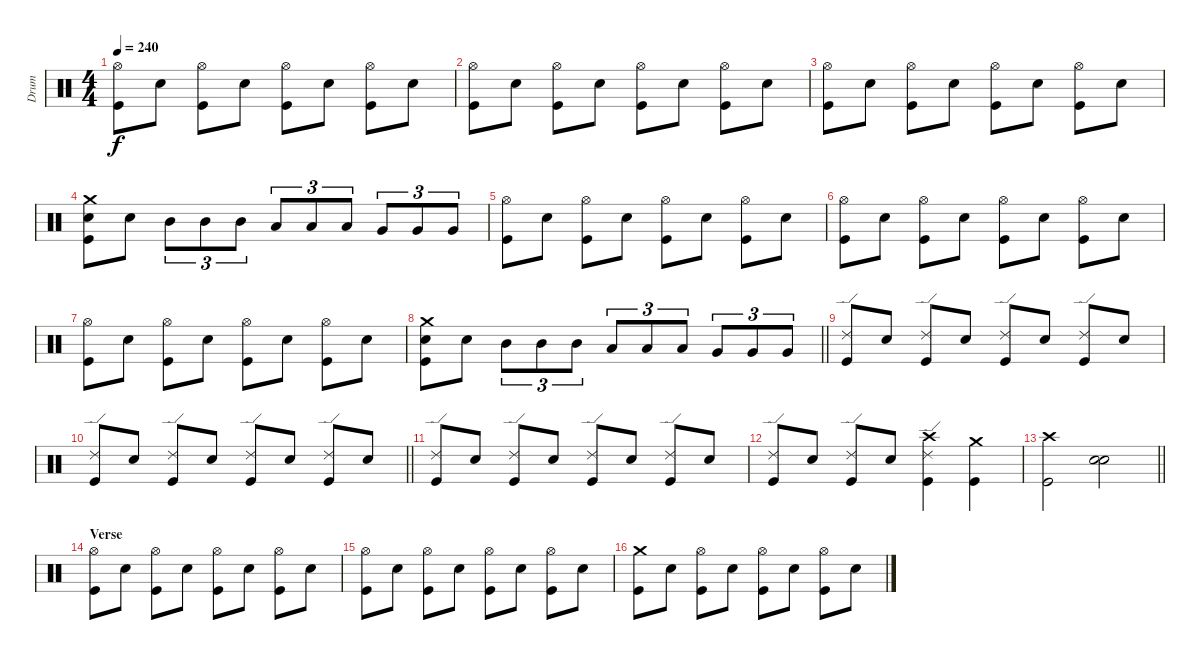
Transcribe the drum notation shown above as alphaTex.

\track ("Drum" "Drum") {instrument percussion}
\staff {score}
\articulation defaults
\ts (4 4)
\tempo 240
\clef neutral
\ks c
("Hi-Hat (open)" "Kick (hit)").8{dy f} "Snare (hit) 2".8 ("Hi-Hat (open)" "Kick (hit)").8 "Snare (hit) 2".8 ("Hi-Hat (open)" "Kick (hit)").8 "Snare (hit) 2".8 ("Hi-Hat (open)" "Kick (hit)").8 "Snare (hit) 2".8 |
("Hi-Hat (open)" "Kick (hit)").8 "Snare (hit) 2".8 ("Hi-Hat (open)" "Kick (hit)").8 "Snare (hit) 2".8 ("Hi-Hat (open)" "Kick (hit)").8 "Snare (hit) 2".8 ("Hi-Hat (open)" "Kick (hit)").8 "Snare (hit) 2".8 |
("Hi-Hat (open)" "Kick (hit)").8 "Snare (hit) 2".8 ("Hi-Hat (open)" "Kick (hit)").8 "Snare (hit) 2".8 ("Hi-Hat (open)" "Kick (hit)").8 "Snare (hit) 2".8 ("Hi-Hat (open)" "Kick (hit)").8 "Snare (hit) 2".8 |
("Crash medium (hit)" "Snare (hit) 2" "Kick (hit)").8 "Snare (hit) 2".8 "Mid Tom (hit)".8{tu (3 2)} "Mid Tom (hit)".8{tu (3 2)} "Mid Tom (hit)".8{tu (3 2)} "Low Tom (hit)".8{tu (3 2)} "Low Tom (hit)".8{tu (3 2)} "Low Tom (hit)".8{tu (3 2)} "Very Low Tom (hit)".8{tu (3 2)} "Very Low Tom (hit)".8{tu (3 2)} "Very Low Tom (hit)".8{tu (3 2)} |
("Hi-Hat (open)" "Kick (hit)").8 "Snare (hit) 2".8 ("Hi-Hat (open)" "Kick (hit)").8 "Snare (hit) 2".8 ("Hi-Hat (open)" "Kick (hit)").8 "Snare (hit) 2".8 ("Hi-Hat (open)" "Kick (hit)").8 "Snare (hit) 2".8 |
("Hi-Hat (open)" "Kick (hit)").8 "Snare (hit) 2".8 ("Hi-Hat (open)" "Kick (hit)").8 "Snare (hit) 2".8 ("Hi-Hat (open)" "Kick (hit)").8 "Snare (hit) 2".8 ("Hi-Hat (open)" "Kick (hit)").8 "Snare (hit) 2".8 |
("Hi-Hat (open)" "Kick (hit)").8 "Snare (hit) 2".8 ("Hi-Hat (open)" "Kick (hit)").8 "Snare (hit) 2".8 ("Hi-Hat (open)" "Kick (hit)").8 "Snare (hit) 2".8 ("Hi-Hat (open)" "Kick (hit)").8 "Snare (hit) 2".8 |
\barLineRight lightlight
("Crash medium (hit)" "Snare (hit) 2" "Kick (hit)").8 "Snare (hit) 2".8 "Mid Tom (hit)".8{tu (3 2)} "Mid Tom (hit)".8{tu (3 2)} "Mid Tom (hit)".8{tu (3 2)} "Low Tom (hit)".8{tu (3 2)} "Low Tom (hit)".8{tu (3 2)} "Low Tom (hit)".8{tu (3 2)} "Very Low Tom (hit)".8{tu (3 2)} "Very Low Tom (hit)".8{tu (3 2)} "Very Low Tom (hit)".8{tu (3 2)} |
\section ("" "")
("Ride (edge) 2" "Kick (hit)").8 "Snare (hit) 2".8 ("Ride (edge) 2" "Kick (hit)").8 "Snare (hit) 2".8 ("Ride (edge) 2" "Kick (hit)").8 "Snare (hit) 2".8 ("Ride (edge) 2" "Kick (hit)").8 "Snare (hit) 2".8 |
\barLineRight lightlight
("Ride (edge) 2" "Kick (hit)").8 "Snare (hit) 2".8 ("Ride (edge) 2" "Kick (hit)").8 "Snare (hit) 2".8 ("Ride (edge) 2" "Kick (hit)").8 "Snare (hit) 2".8 ("Ride (edge) 2" "Kick (hit)").8 "Snare (hit) 2".8 |
("Ride (edge) 2" "Kick (hit)").8 "Snare (hit) 2".8 ("Ride (edge) 2" "Kick (hit)").8 "Snare (hit) 2".8 ("Ride (edge) 2" "Kick (hit)").8 "Snare (hit) 2".8 ("Ride (edge) 2" "Kick (hit)").8 "Snare (hit) 2".8 |
("Ride (edge) 2" "Kick (hit)").8 "Snare (hit) 2".8 ("Ride (edge) 2" "Kick (hit)").8 "Snare (hit) 2".8 ("Crash high (hit)" "Ride (edge) 2" "Kick (hit)").4 ("Crash medium (hit)" "Kick (hit)").4 |
\barLineRight lightlight
("Crash high (hit)" "Kick (hit)").2 ("Snare (hit) 2" "Snare (hit) 2").2 |
\section ("" "Verse")
("Hi-Hat (open)" "Kick (hit)").8 "Snare (hit) 2".8 ("Hi-Hat (open)" "Kick (hit)").8 "Snare (hit) 2".8 ("Hi-Hat (open)" "Kick (hit)").8 "Snare (hit) 2".8 ("Hi-Hat (open)" "Kick (hit)").8 "Snare (hit) 2".8 |
("Hi-Hat (open)" "Kick (hit)").8 "Snare (hit) 2".8 ("Hi-Hat (open)" "Kick (hit)").8 "Snare (hit) 2".8 ("Hi-Hat (open)" "Kick (hit)").8 "Snare (hit) 2".8 ("Hi-Hat (open)" "Kick (hit)").8 "Snare (hit) 2".8 |
("Crash medium (hit)" "Kick (hit)").8 "Snare (hit) 2".8 ("Hi-Hat (open)" "Kick (hit)").8 "Snare (hit) 2".8 ("Hi-Hat (open)" "Kick (hit)").8 "Snare (hit) 2".8 ("Hi-Hat (open)" "Kick (hit)").8 "Snare (hit) 2".8
